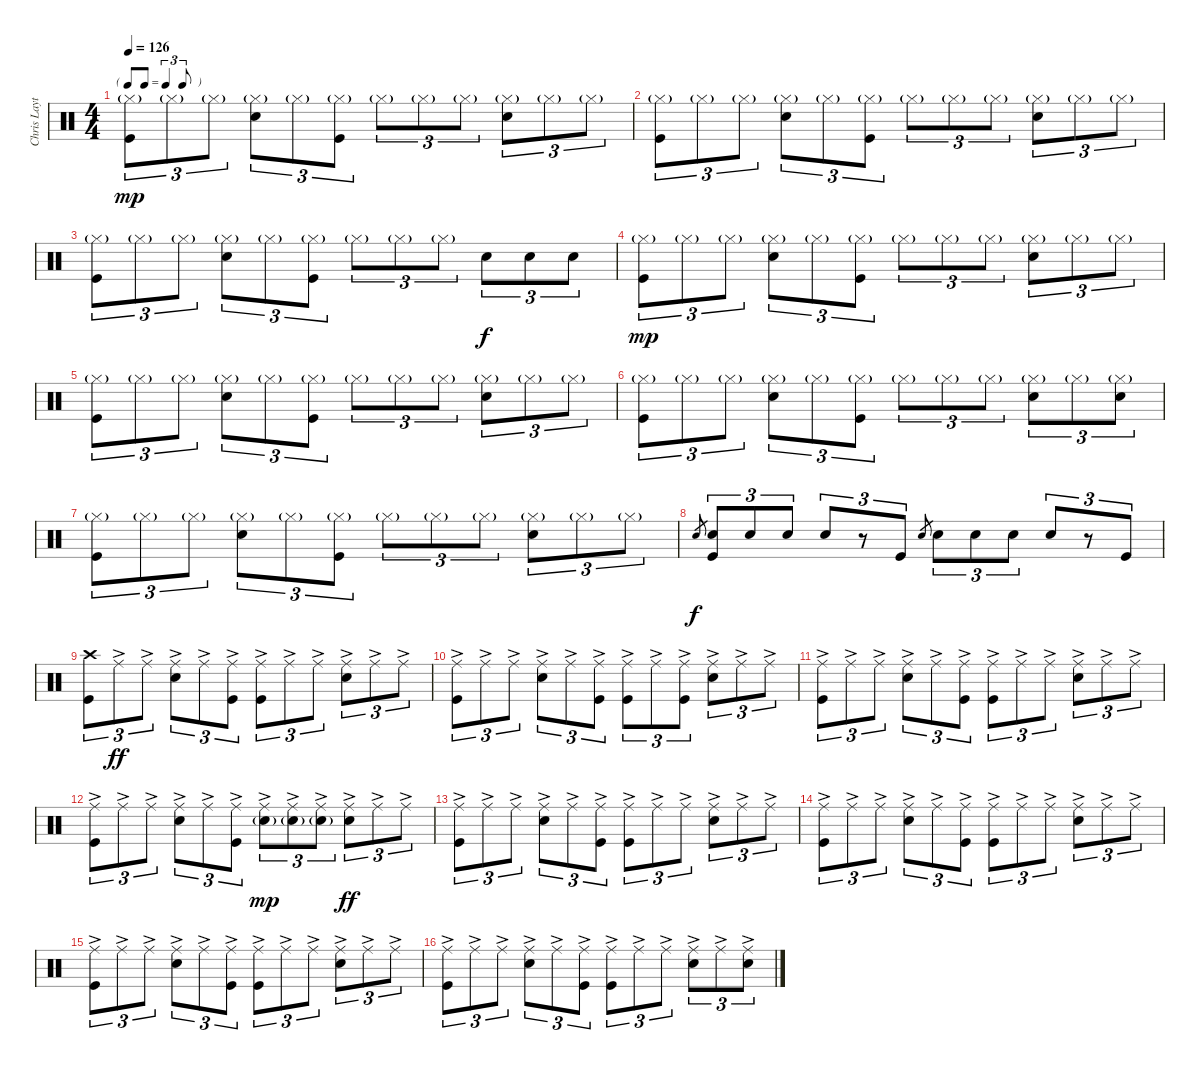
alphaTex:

\track ("Chris Layton" "Chris Layt") {instrument percussion}
\staff {score}
\articulation defaults
\ts (4 4)
\tf triplet8th
\tempo 126
\clef neutral
\ks c
("Hi-Hat (closed)"{g} "Kick (hit)").8{tu (3 2) dy mp} "Hi-Hat (closed)"{g}.8{tu (3 2)} "Hi-Hat (closed)"{g}.8{tu (3 2)} ("Hi-Hat (closed)"{g} "Electric Snare (hit)").8{tu (3 2)} "Hi-Hat (closed)"{g}.8{tu (3 2)} ("Hi-Hat (closed)"{g} "Kick (hit)").8{tu (3 2)} "Hi-Hat (closed)"{g}.8{tu (3 2)} "Hi-Hat (closed)"{g}.8{tu (3 2)} "Hi-Hat (closed)"{g}.8{tu (3 2)} ("Hi-Hat (closed)"{g} "Electric Snare (hit)").8{tu (3 2)} "Hi-Hat (closed)"{g}.8{tu (3 2)} "Hi-Hat (closed)"{g}.8{tu (3 2)} |
("Hi-Hat (closed)"{g} "Kick (hit)").8{tu (3 2)} "Hi-Hat (closed)"{g}.8{tu (3 2)} "Hi-Hat (closed)"{g}.8{tu (3 2)} ("Hi-Hat (closed)"{g} "Electric Snare (hit)").8{tu (3 2)} "Hi-Hat (closed)"{g}.8{tu (3 2)} ("Hi-Hat (closed)"{g} "Kick (hit)").8{tu (3 2)} "Hi-Hat (closed)"{g}.8{tu (3 2)} "Hi-Hat (closed)"{g}.8{tu (3 2)} "Hi-Hat (closed)"{g}.8{tu (3 2)} ("Hi-Hat (closed)"{g} "Electric Snare (hit)").8{tu (3 2)} "Hi-Hat (closed)"{g}.8{tu (3 2)} "Hi-Hat (closed)"{g}.8{tu (3 2)} |
("Hi-Hat (closed)"{g} "Kick (hit)").8{tu (3 2)} "Hi-Hat (closed)"{g}.8{tu (3 2)} "Hi-Hat (closed)"{g}.8{tu (3 2)} ("Hi-Hat (closed)"{g} "Electric Snare (hit)").8{tu (3 2)} "Hi-Hat (closed)"{g}.8{tu (3 2)} ("Hi-Hat (closed)"{g} "Kick (hit)").8{tu (3 2)} "Hi-Hat (closed)"{g}.8{tu (3 2)} "Hi-Hat (closed)"{g}.8{tu (3 2)} "Hi-Hat (closed)"{g}.8{tu (3 2)} "Electric Snare (hit)".8{tu (3 2) dy f} "Electric Snare (hit)".8{tu (3 2)} "Electric Snare (hit)".8{tu (3 2)} |
("Hi-Hat (closed)"{g} "Kick (hit)").8{tu (3 2) dy mp} "Hi-Hat (closed)"{g}.8{tu (3 2)} "Hi-Hat (closed)"{g}.8{tu (3 2)} ("Hi-Hat (closed)"{g} "Electric Snare (hit)").8{tu (3 2)} "Hi-Hat (closed)"{g}.8{tu (3 2)} ("Hi-Hat (closed)"{g} "Kick (hit)").8{tu (3 2)} "Hi-Hat (closed)"{g}.8{tu (3 2)} "Hi-Hat (closed)"{g}.8{tu (3 2)} "Hi-Hat (closed)"{g}.8{tu (3 2)} ("Hi-Hat (closed)"{g} "Electric Snare (hit)").8{tu (3 2)} "Hi-Hat (closed)"{g}.8{tu (3 2)} "Hi-Hat (closed)"{g}.8{tu (3 2)} |
("Hi-Hat (closed)"{g} "Kick (hit)").8{tu (3 2)} "Hi-Hat (closed)"{g}.8{tu (3 2)} "Hi-Hat (closed)"{g}.8{tu (3 2)} ("Hi-Hat (closed)"{g} "Electric Snare (hit)").8{tu (3 2)} "Hi-Hat (closed)"{g}.8{tu (3 2)} ("Hi-Hat (closed)"{g} "Kick (hit)").8{tu (3 2)} "Hi-Hat (closed)"{g}.8{tu (3 2)} "Hi-Hat (closed)"{g}.8{tu (3 2)} "Hi-Hat (closed)"{g}.8{tu (3 2)} ("Hi-Hat (closed)"{g} "Electric Snare (hit)").8{tu (3 2)} "Hi-Hat (closed)"{g}.8{tu (3 2)} "Hi-Hat (closed)"{g}.8{tu (3 2)} |
("Hi-Hat (closed)"{g} "Kick (hit)").8{tu (3 2)} "Hi-Hat (closed)"{g}.8{tu (3 2)} "Hi-Hat (closed)"{g}.8{tu (3 2)} ("Hi-Hat (closed)"{g} "Electric Snare (hit)").8{tu (3 2)} "Hi-Hat (closed)"{g}.8{tu (3 2)} ("Hi-Hat (closed)"{g} "Kick (hit)").8{tu (3 2)} "Hi-Hat (closed)"{g}.8{tu (3 2)} "Hi-Hat (closed)"{g}.8{tu (3 2)} "Hi-Hat (closed)"{g}.8{tu (3 2)} ("Hi-Hat (closed)"{g} "Electric Snare (hit)").8{tu (3 2)} "Hi-Hat (closed)"{g}.8{tu (3 2)} ("Hi-Hat (closed)"{g} "Electric Snare (hit)").8{tu (3 2)} |
("Hi-Hat (closed)"{g} "Kick (hit)").8{tu (3 2)} "Hi-Hat (closed)"{g}.8{tu (3 2)} "Hi-Hat (closed)"{g}.8{tu (3 2)} ("Hi-Hat (closed)"{g} "Electric Snare (hit)").8{tu (3 2)} "Hi-Hat (closed)"{g}.8{tu (3 2)} ("Hi-Hat (closed)"{g} "Kick (hit)").8{tu (3 2)} "Hi-Hat (closed)"{g}.8{tu (3 2)} "Hi-Hat (closed)"{g}.8{tu (3 2)} "Hi-Hat (closed)"{g}.8{tu (3 2)} ("Hi-Hat (closed)"{g} "Electric Snare (hit)").8{tu (3 2)} "Hi-Hat (closed)"{g}.8{tu (3 2)} "Hi-Hat (closed)"{g}.8{tu (3 2)} |
"Electric Snare (hit)".8{gr dy f} ("Electric Snare (hit)" "Kick (hit)").8{tu (3 2)} "Electric Snare (hit)".8{tu (3 2)} "Electric Snare (hit)".8{tu (3 2)} "Electric Snare (hit)".8{tu (3 2)} r.8{tu (3 2)} "Kick (hit)".8{tu (3 2)} "Electric Snare (hit)".8{gr} "Electric Snare (hit)".8{tu (3 2)} "Electric Snare (hit)".8{tu (3 2)} "Electric Snare (hit)".8{tu (3 2)} "Electric Snare (hit)".8{tu (3 2)} r.8{tu (3 2)} "Kick (hit)".8{tu (3 2)} |
("Crash high (hit)" "Kick (hit)").8{tu (3 2)} "Ride (middle)"{ac}.8{tu (3 2) dy ff} "Ride (middle)"{ac}.8{tu (3 2)} ("Ride (middle)"{ac} "Electric Snare (hit)").8{tu (3 2)} "Ride (middle)"{ac}.8{tu (3 2)} ("Ride (middle)"{ac} "Kick (hit)").8{tu (3 2)} ("Ride (middle)"{ac} "Kick (hit)").8{tu (3 2)} "Ride (middle)"{ac}.8{tu (3 2)} "Ride (middle)"{ac}.8{tu (3 2)} ("Ride (middle)"{ac} "Electric Snare (hit)").8{tu (3 2)} "Ride (middle)"{ac}.8{tu (3 2)} "Ride (middle)"{ac}.8{tu (3 2)} |
("Ride (middle)"{ac} "Kick (hit)").8{tu (3 2)} "Ride (middle)"{ac}.8{tu (3 2)} "Ride (middle)"{ac}.8{tu (3 2)} ("Ride (middle)"{ac} "Electric Snare (hit)").8{tu (3 2)} "Ride (middle)"{ac}.8{tu (3 2)} ("Ride (middle)"{ac} "Kick (hit)").8{tu (3 2)} ("Ride (middle)"{ac} "Kick (hit)").8{tu (3 2)} "Ride (middle)"{ac}.8{tu (3 2)} ("Ride (middle)"{ac} "Kick (hit)").8{tu (3 2)} ("Ride (middle)"{ac} "Electric Snare (hit)").8{tu (3 2)} "Ride (middle)"{ac}.8{tu (3 2)} "Ride (middle)"{ac}.8{tu (3 2)} |
("Ride (middle)"{ac} "Kick (hit)").8{tu (3 2)} "Ride (middle)"{ac}.8{tu (3 2)} "Ride (middle)"{ac}.8{tu (3 2)} ("Ride (middle)"{ac} "Electric Snare (hit)").8{tu (3 2)} "Ride (middle)"{ac}.8{tu (3 2)} ("Ride (middle)"{ac} "Kick (hit)").8{tu (3 2)} ("Ride (middle)"{ac} "Kick (hit)").8{tu (3 2)} "Ride (middle)"{ac}.8{tu (3 2)} "Ride (middle)"{ac}.8{tu (3 2)} ("Ride (middle)"{ac} "Electric Snare (hit)").8{tu (3 2)} "Ride (middle)"{ac}.8{tu (3 2)} "Ride (middle)"{ac}.8{tu (3 2)} |
("Ride (middle)"{ac} "Kick (hit)").8{tu (3 2)} "Ride (middle)"{ac}.8{tu (3 2)} "Ride (middle)"{ac}.8{tu (3 2)} ("Ride (middle)"{ac} "Electric Snare (hit)").8{tu (3 2)} "Ride (middle)"{ac}.8{tu (3 2)} ("Ride (middle)"{ac} "Kick (hit)").8{tu (3 2)} ("Ride (middle)"{ac} "Electric Snare (hit)"{g}).8{tu (3 2) dy mp} ("Ride (middle)"{ac} "Electric Snare (hit)"{g}).8{tu (3 2)} ("Ride (middle)"{ac} "Electric Snare (hit)"{g}).8{tu (3 2)} ("Ride (middle)"{ac} "Electric Snare (hit)").8{tu (3 2) dy ff} "Ride (middle)"{ac}.8{tu (3 2)} "Ride (middle)"{ac}.8{tu (3 2)} |
("Ride (middle)"{ac} "Kick (hit)").8{tu (3 2)} "Ride (middle)"{ac}.8{tu (3 2)} "Ride (middle)"{ac}.8{tu (3 2)} ("Ride (middle)"{ac} "Electric Snare (hit)").8{tu (3 2)} "Ride (middle)"{ac}.8{tu (3 2)} ("Ride (middle)"{ac} "Kick (hit)").8{tu (3 2)} ("Ride (middle)"{ac} "Kick (hit)").8{tu (3 2)} "Ride (middle)"{ac}.8{tu (3 2)} "Ride (middle)"{ac}.8{tu (3 2)} ("Ride (middle)"{ac} "Electric Snare (hit)").8{tu (3 2)} "Ride (middle)"{ac}.8{tu (3 2)} "Ride (middle)"{ac}.8{tu (3 2)} |
("Ride (middle)"{ac} "Kick (hit)").8{tu (3 2)} "Ride (middle)"{ac}.8{tu (3 2)} "Ride (middle)"{ac}.8{tu (3 2)} ("Ride (middle)"{ac} "Electric Snare (hit)").8{tu (3 2)} "Ride (middle)"{ac}.8{tu (3 2)} ("Ride (middle)"{ac} "Kick (hit)").8{tu (3 2)} ("Ride (middle)"{ac} "Kick (hit)").8{tu (3 2)} "Ride (middle)"{ac}.8{tu (3 2)} "Ride (middle)"{ac}.8{tu (3 2)} ("Ride (middle)"{ac} "Electric Snare (hit)").8{tu (3 2)} "Ride (middle)"{ac}.8{tu (3 2)} "Ride (middle)"{ac}.8{tu (3 2)} |
("Ride (middle)"{ac} "Kick (hit)").8{tu (3 2)} "Ride (middle)"{ac}.8{tu (3 2)} "Ride (middle)"{ac}.8{tu (3 2)} ("Ride (middle)"{ac} "Electric Snare (hit)").8{tu (3 2)} "Ride (middle)"{ac}.8{tu (3 2)} ("Ride (middle)"{ac} "Kick (hit)").8{tu (3 2)} ("Ride (middle)"{ac} "Kick (hit)").8{tu (3 2)} "Ride (middle)"{ac}.8{tu (3 2)} "Ride (middle)"{ac}.8{tu (3 2)} ("Ride (middle)"{ac} "Electric Snare (hit)").8{tu (3 2)} "Ride (middle)"{ac}.8{tu (3 2)} "Ride (middle)"{ac}.8{tu (3 2)} |
("Ride (middle)"{ac} "Kick (hit)").8{tu (3 2)} "Ride (middle)"{ac}.8{tu (3 2)} "Ride (middle)"{ac}.8{tu (3 2)} ("Ride (middle)"{ac} "Electric Snare (hit)").8{tu (3 2)} "Ride (middle)"{ac}.8{tu (3 2)} ("Ride (middle)"{ac} "Kick (hit)").8{tu (3 2)} ("Ride (middle)"{ac} "Kick (hit)").8{tu (3 2)} "Ride (middle)"{ac}.8{tu (3 2)} "Ride (middle)"{ac}.8{tu (3 2)} ("Ride (middle)"{ac} "Electric Snare (hit)").8{tu (3 2)} "Ride (middle)"{ac}.8{tu (3 2)} ("Ride (middle)"{ac} "Electric Snare (hit)").8{tu (3 2)}
